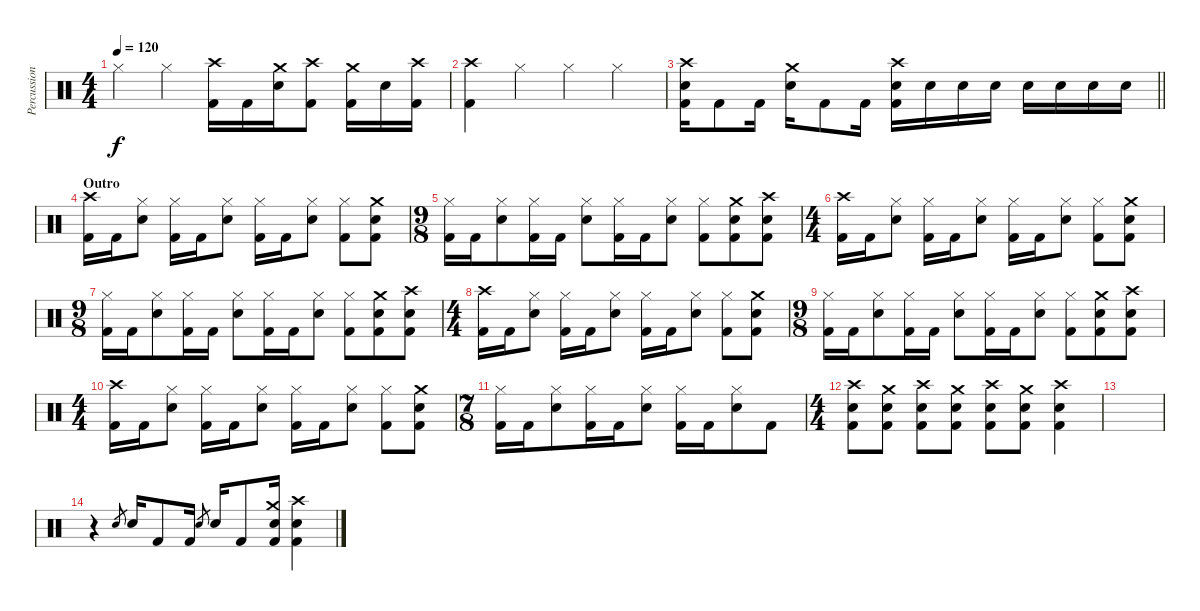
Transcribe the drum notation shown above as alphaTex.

\track ("Percussion" "Percussion") {instrument percussion}
\staff {score}
\articulation defaults
\ts (4 4)
\tempo 120
\clef neutral
\ks c "Hi-Hat (closed)".4{dy f} "Hi-Hat (closed)".4
("Crash high (hit)" "Kick (hit) 2").16 "Kick (hit) 2".16 ("Crash medium (hit)" "Electric Snare (hit)").16 ("Crash high (hit)" "Kick (hit) 2").8 ("Crash medium (hit)" "Kick (hit) 2").16 "Electric Snare (hit)".16 ("Crash high (hit)" "Kick (hit) 2").16 |
("Crash high (hit)" "Kick (hit) 2").4 "Hi-Hat (closed)".4 "Hi-Hat (closed)".4 "Hi-Hat (closed)".4 |
\barLineRight lightlight
("Crash high (hit)" "Electric Snare (hit)" "Kick (hit) 2").16 "Kick (hit) 2".8 "Kick (hit) 2".16 ("Crash medium (hit)" "Electric Snare (hit)").16 "Kick (hit) 2".8 "Kick (hit) 2".16 ("Crash high (hit)" "Electric Snare (hit)" "Kick (hit) 2").16 "Electric Snare (hit)".16 "Electric Snare (hit)".16 "Electric Snare (hit)".16 "Electric Snare (hit)".16 "Electric Snare (hit)".16 "Electric Snare (hit)".16 "Electric Snare (hit)".16 |
\section ("" "Outro")
("Crash high (hit)" "Kick (hit) 2").16 "Kick (hit) 2".16 ("Electric Snare (hit)" "Hi-Hat (closed)").8 ("Hi-Hat (closed)" "Kick (hit) 2").16 "Kick (hit) 2".16 ("Electric Snare (hit)" "Hi-Hat (closed)").8 ("Hi-Hat (closed)" "Kick (hit) 2").16 "Kick (hit) 2".16 ("Electric Snare (hit)" "Hi-Hat (closed)").8 ("Hi-Hat (closed)" "Kick (hit) 2").8 ("Crash medium (hit)" "Electric Snare (hit)" "Kick (hit) 2").8 |
\ts (9 8)
("Hi-Hat (closed)" "Kick (hit) 2").16 "Kick (hit) 2".16 ("Electric Snare (hit)" "Hi-Hat (closed)").8 ("Hi-Hat (closed)" "Kick (hit) 2").16 "Kick (hit) 2".16 ("Electric Snare (hit)" "Hi-Hat (closed)").8 ("Hi-Hat (closed)" "Kick (hit) 2").16 "Kick (hit) 2".16 ("Electric Snare (hit)" "Hi-Hat (closed)").8 ("Hi-Hat (closed)" "Kick (hit) 2").8 ("Crash medium (hit)" "Electric Snare (hit)" "Kick (hit) 2").8 ("Crash high (hit)" "Electric Snare (hit)" "Kick (hit) 2").8 |
\ts (4 4)
("Crash high (hit)" "Kick (hit) 2").16 "Kick (hit) 2".16 ("Electric Snare (hit)" "Hi-Hat (closed)").8 ("Hi-Hat (closed)" "Kick (hit) 2").16 "Kick (hit) 2".16 ("Electric Snare (hit)" "Hi-Hat (closed)").8 ("Hi-Hat (closed)" "Kick (hit) 2").16 "Kick (hit) 2".16 ("Electric Snare (hit)" "Hi-Hat (closed)").8 ("Hi-Hat (closed)" "Kick (hit) 2").8 ("Crash medium (hit)" "Electric Snare (hit)" "Kick (hit) 2").8 |
\ts (9 8)
("Hi-Hat (closed)" "Kick (hit) 2").16 "Kick (hit) 2".16 ("Electric Snare (hit)" "Hi-Hat (closed)").8 ("Hi-Hat (closed)" "Kick (hit) 2").16 "Kick (hit) 2".16 ("Electric Snare (hit)" "Hi-Hat (closed)").8 ("Hi-Hat (closed)" "Kick (hit) 2").16 "Kick (hit) 2".16 ("Electric Snare (hit)" "Hi-Hat (closed)").8 ("Hi-Hat (closed)" "Kick (hit) 2").8 ("Crash medium (hit)" "Electric Snare (hit)" "Kick (hit) 2").8 ("Crash high (hit)" "Electric Snare (hit)" "Kick (hit) 2").8 |
\ts (4 4)
("Crash high (hit)" "Kick (hit) 2").16 "Kick (hit) 2".16 ("Electric Snare (hit)" "Hi-Hat (closed)").8 ("Hi-Hat (closed)" "Kick (hit) 2").16 "Kick (hit) 2".16 ("Electric Snare (hit)" "Hi-Hat (closed)").8 ("Hi-Hat (closed)" "Kick (hit) 2").16 "Kick (hit) 2".16 ("Electric Snare (hit)" "Hi-Hat (closed)").8 ("Hi-Hat (closed)" "Kick (hit) 2").8 ("Crash medium (hit)" "Electric Snare (hit)" "Kick (hit) 2").8 |
\ts (9 8)
("Hi-Hat (closed)" "Kick (hit) 2").16 "Kick (hit) 2".16 ("Electric Snare (hit)" "Hi-Hat (closed)").8 ("Hi-Hat (closed)" "Kick (hit) 2").16 "Kick (hit) 2".16 ("Electric Snare (hit)" "Hi-Hat (closed)").8 ("Hi-Hat (closed)" "Kick (hit) 2").16 "Kick (hit) 2".16 ("Electric Snare (hit)" "Hi-Hat (closed)").8 ("Hi-Hat (closed)" "Kick (hit) 2").8 ("Crash medium (hit)" "Electric Snare (hit)" "Kick (hit) 2").8 ("Crash high (hit)" "Electric Snare (hit)" "Kick (hit) 2").8 |
\ts (4 4)
("Crash high (hit)" "Kick (hit) 2").16 "Kick (hit) 2".16 ("Electric Snare (hit)" "Hi-Hat (closed)").8 ("Hi-Hat (closed)" "Kick (hit) 2").16 "Kick (hit) 2".16 ("Electric Snare (hit)" "Hi-Hat (closed)").8 ("Hi-Hat (closed)" "Kick (hit) 2").16 "Kick (hit) 2".16 ("Electric Snare (hit)" "Hi-Hat (closed)").8 ("Hi-Hat (closed)" "Kick (hit) 2").8 ("Crash medium (hit)" "Electric Snare (hit)" "Kick (hit) 2").8 |
\ts (7 8)
("Hi-Hat (closed)" "Kick (hit) 2").16 "Kick (hit) 2".16 ("Electric Snare (hit)" "Hi-Hat (closed)").8 ("Hi-Hat (closed)" "Kick (hit) 2").16 "Kick (hit) 2".16 ("Electric Snare (hit)" "Hi-Hat (closed)").8 ("Hi-Hat (closed)" "Kick (hit) 2").16 "Kick (hit) 2".16 ("Electric Snare (hit)" "Hi-Hat (closed)").8 "Kick (hit) 2".8 |
\ts (4 4)
("Crash high (hit)" "Electric Snare (hit)" "Kick (hit) 2").8 ("Crash medium (hit)" "Electric Snare (hit)" "Kick (hit) 2").8 ("Crash high (hit)" "Electric Snare (hit)" "Kick (hit) 2").8 ("Crash medium (hit)" "Electric Snare (hit)" "Kick (hit) 2").8 ("Crash high (hit)" "Electric Snare (hit)" "Kick (hit) 2").8 ("Crash medium (hit)" "Electric Snare (hit)" "Kick (hit) 2").8 ("Crash high (hit)" "Electric Snare (hit)" "Kick (hit) 2").4 |
|
r.4 "Electric Snare (hit)".8{gr} "Electric Snare (hit)".16 "Kick (hit) 2".8 "Kick (hit) 2".16 "Electric Snare (hit)".8{gr} "Electric Snare (hit)".16 "Kick (hit) 2".8 ("Crash medium (hit)" "Electric Snare (hit)" "Kick (hit) 2").16 ("Crash high (hit)" "Electric Snare (hit)" "Kick (hit) 2").4
